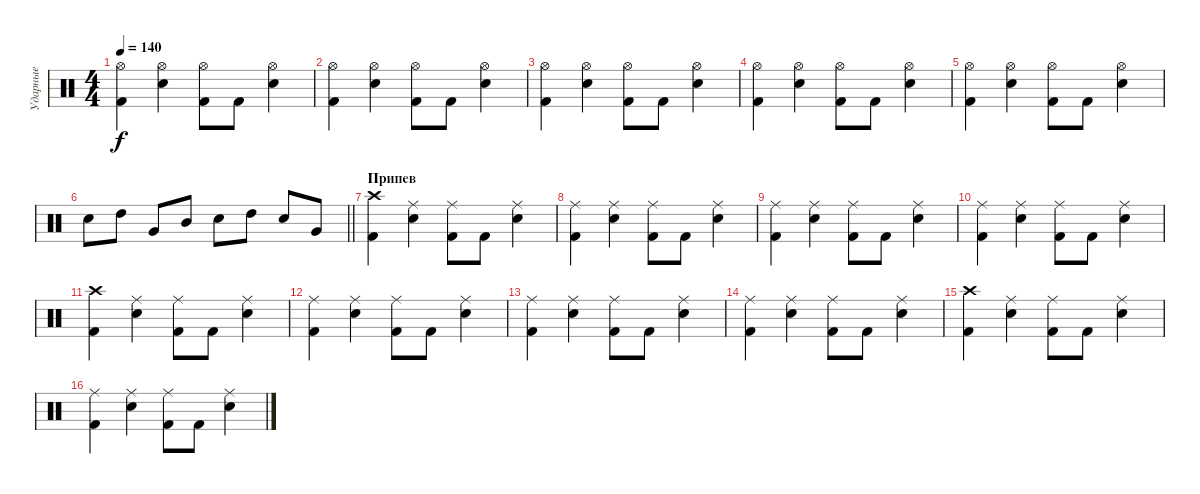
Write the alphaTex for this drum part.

\track ("Ударные" "Ударные") {instrument percussion}
\staff {score}
\articulation defaults
\ts (4 4)
\tempo 140
\clef neutral
\ks c
("Hi-Hat (open)" "Kick (hit) 2").4{dy f} ("Hi-Hat (open)" "Electric Snare (hit)").4 ("Hi-Hat (open)" "Kick (hit) 2").8 "Kick (hit) 2".8 ("Hi-Hat (open)" "Electric Snare (hit)").4 |
("Hi-Hat (open)" "Kick (hit) 2").4 ("Hi-Hat (open)" "Electric Snare (hit)").4 ("Hi-Hat (open)" "Kick (hit) 2").8 "Kick (hit) 2".8 ("Hi-Hat (open)" "Electric Snare (hit)").4 |
("Hi-Hat (open)" "Kick (hit) 2").4 ("Hi-Hat (open)" "Electric Snare (hit)").4 ("Hi-Hat (open)" "Kick (hit) 2").8 "Kick (hit) 2".8 ("Hi-Hat (open)" "Electric Snare (hit)").4 |
("Hi-Hat (open)" "Kick (hit) 2").4 ("Hi-Hat (open)" "Electric Snare (hit)").4 ("Hi-Hat (open)" "Kick (hit) 2").8 "Kick (hit) 2".8 ("Hi-Hat (open)" "Electric Snare (hit)").4 |
("Hi-Hat (open)" "Kick (hit) 2").4 ("Hi-Hat (open)" "Electric Snare (hit)").4 ("Hi-Hat (open)" "Kick (hit) 2").8 "Kick (hit) 2".8 ("Hi-Hat (open)" "Electric Snare (hit)").4 |
\barLineRight lightlight "Electric Snare (hit)".8 "High Tom (hit)".8 "Very Low Tom (hit)".8 "Mid Tom (hit)".8 "Electric Snare (hit)".8 "High Tom (hit)".8 "Electric Snare (hit)".8 "Very Low Tom (hit)".8
|
\section ("" "Припев")
("Crash high (hit)" "Kick (hit) 2").4 ("Ride (middle)" "Electric Snare (hit)").4 ("Ride (middle)" "Kick (hit) 2").8 "Kick (hit) 2".8 ("Ride (middle)" "Electric Snare (hit)").4 |
("Ride (middle)" "Kick (hit) 2").4 ("Ride (middle)" "Electric Snare (hit)").4 ("Ride (middle)" "Kick (hit) 2").8 "Kick (hit) 2".8 ("Ride (middle)" "Electric Snare (hit)").4 |
("Ride (middle)" "Kick (hit) 2").4 ("Ride (middle)" "Electric Snare (hit)").4 ("Ride (middle)" "Kick (hit) 2").8 "Kick (hit) 2".8 ("Ride (middle)" "Electric Snare (hit)").4 |
("Ride (middle)" "Kick (hit) 2").4 ("Ride (middle)" "Electric Snare (hit)").4 ("Ride (middle)" "Kick (hit) 2").8 "Kick (hit) 2".8 ("Ride (middle)" "Electric Snare (hit)").4 |
("Crash high (hit)" "Kick (hit) 2").4 ("Ride (middle)" "Electric Snare (hit)").4 ("Ride (middle)" "Kick (hit) 2").8 "Kick (hit) 2".8 ("Ride (middle)" "Electric Snare (hit)").4 |
("Ride (middle)" "Kick (hit) 2").4 ("Ride (middle)" "Electric Snare (hit)").4 ("Ride (middle)" "Kick (hit) 2").8 "Kick (hit) 2".8 ("Ride (middle)" "Electric Snare (hit)").4 |
("Ride (middle)" "Kick (hit) 2").4 ("Ride (middle)" "Electric Snare (hit)").4 ("Ride (middle)" "Kick (hit) 2").8 "Kick (hit) 2".8 ("Ride (middle)" "Electric Snare (hit)").4 |
("Ride (middle)" "Kick (hit) 2").4 ("Ride (middle)" "Electric Snare (hit)").4 ("Ride (middle)" "Kick (hit) 2").8 "Kick (hit) 2".8 ("Ride (middle)" "Electric Snare (hit)").4 |
("Crash high (hit)" "Kick (hit) 2").4 ("Ride (middle)" "Electric Snare (hit)").4 ("Ride (middle)" "Kick (hit) 2").8 "Kick (hit) 2".8 ("Ride (middle)" "Electric Snare (hit)").4 |
("Ride (middle)" "Kick (hit) 2").4 ("Ride (middle)" "Electric Snare (hit)").4 ("Ride (middle)" "Kick (hit) 2").8 "Kick (hit) 2".8 ("Ride (middle)" "Electric Snare (hit)").4
